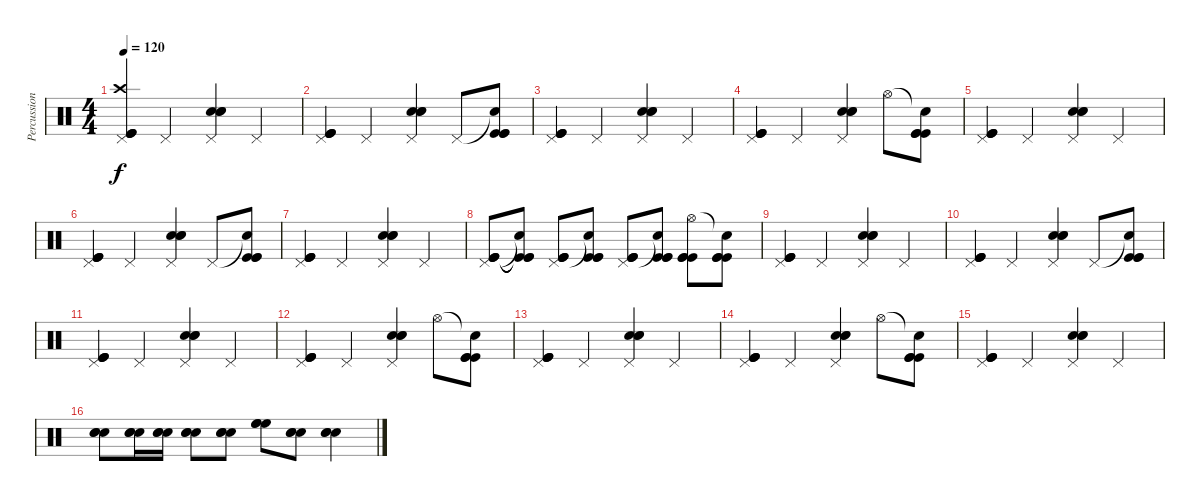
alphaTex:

\track ("Percussions" "Percussion") {instrument percussion}
\staff {score}
\articulation defaults
\ts (4 4)
\tempo 120
\clef neutral
\ks c
("Pedal Hi-Hat (hit)" "Crash high (hit)" "Kick (hit)" "Kick (hit)" "Kick (hit)").4{dy f} "Pedal Hi-Hat (hit)".4 ("Pedal Hi-Hat (hit)" "Snare (hit) 2" "Snare (hit) 2" "Snare (hit) 2").4 "Pedal Hi-Hat (hit)".4 |
("Pedal Hi-Hat (hit)" "Kick (hit)" "Kick (hit)" "Kick (hit)").4 "Pedal Hi-Hat (hit)".4 ("Pedal Hi-Hat (hit)" "Snare (hit) 2" "Snare (hit) 2" "Snare (hit) 2").4 "Pedal Hi-Hat (hit)".8 ("Snare (hit)"{t} "Kick (hit)" "Kick (hit)" "Kick (hit)").8 |
("Pedal Hi-Hat (hit)" "Kick (hit)" "Kick (hit)" "Kick (hit)").4 "Pedal Hi-Hat (hit)".4 ("Pedal Hi-Hat (hit)" "Snare (hit) 2" "Snare (hit) 2" "Snare (hit) 2").4 "Pedal Hi-Hat (hit)".4 |
("Pedal Hi-Hat (hit)" "Kick (hit)" "Kick (hit)" "Kick (hit)").4 "Pedal Hi-Hat (hit)".4 ("Pedal Hi-Hat (hit)" "Snare (hit) 2" "Snare (hit) 2" "Snare (hit) 2").4 "Hi-Hat (open)".8 ("Snare (hit)"{t} "Kick (hit)" "Kick (hit)" "Kick (hit)").8 |
("Pedal Hi-Hat (hit)" "Kick (hit)" "Kick (hit)" "Kick (hit)").4 "Pedal Hi-Hat (hit)".4 ("Pedal Hi-Hat (hit)" "Snare (hit) 2" "Snare (hit) 2" "Snare (hit) 2").4 "Pedal Hi-Hat (hit)".4 |
("Pedal Hi-Hat (hit)" "Kick (hit)" "Kick (hit)" "Kick (hit)").4 "Pedal Hi-Hat (hit)".4 ("Pedal Hi-Hat (hit)" "Snare (hit) 2" "Snare (hit) 2" "Snare (hit) 2").4 "Pedal Hi-Hat (hit)".8 ("Snare (hit)"{t} "Kick (hit)" "Kick (hit)" "Kick (hit)").8 |
("Pedal Hi-Hat (hit)" "Kick (hit)" "Kick (hit)" "Kick (hit)").4 "Pedal Hi-Hat (hit)".4 ("Pedal Hi-Hat (hit)" "Snare (hit) 2" "Snare (hit) 2" "Snare (hit) 2").4 "Pedal Hi-Hat (hit)".4 |
("Pedal Hi-Hat (hit)" "Kick (hit)" "Kick (hit)" "Kick (hit)").8 ("Snare (hit)"{t} "Kick (hit)"{t} "Kick (hit)"{t} "Kick (hit)"{t}).8 ("Pedal Hi-Hat (hit)" "Kick (hit)" "Kick (hit)" "Kick (hit)").8 ("Snare (hit)"{t} "Kick (hit)" "Kick (hit)" "Kick (hit)").8 ("Pedal Hi-Hat (hit)" "Kick (hit)" "Kick (hit)" "Kick (hit)").8 ("Snare (hit)"{t} "Kick (hit)" "Kick (hit)" "Kick (hit)").8 ("Hi-Hat (open)" "Kick (hit)" "Kick (hit)" "Kick (hit)").8 ("Snare (hit)"{t} "Kick (hit)" "Kick (hit)" "Kick (hit)").8 |
("Pedal Hi-Hat (hit)" "Kick (hit)" "Kick (hit)" "Kick (hit)").4 "Pedal Hi-Hat (hit)".4 ("Pedal Hi-Hat (hit)" "Snare (hit) 2" "Snare (hit) 2" "Snare (hit) 2").4 "Pedal Hi-Hat (hit)".4 |
("Pedal Hi-Hat (hit)" "Kick (hit)" "Kick (hit)" "Kick (hit)").4 "Pedal Hi-Hat (hit)".4 ("Pedal Hi-Hat (hit)" "Snare (hit) 2" "Snare (hit) 2" "Snare (hit) 2").4 "Pedal Hi-Hat (hit)".8 ("Snare (hit)"{t} "Kick (hit)" "Kick (hit)" "Kick (hit)").8 |
("Pedal Hi-Hat (hit)" "Kick (hit)" "Kick (hit)" "Kick (hit)").4 "Pedal Hi-Hat (hit)".4 ("Pedal Hi-Hat (hit)" "Snare (hit) 2" "Snare (hit) 2" "Snare (hit) 2").4 "Pedal Hi-Hat (hit)".4 |
("Pedal Hi-Hat (hit)" "Kick (hit)" "Kick (hit)" "Kick (hit)").4 "Pedal Hi-Hat (hit)".4 ("Pedal Hi-Hat (hit)" "Snare (hit) 2" "Snare (hit) 2" "Snare (hit) 2").4 "Hi-Hat (open)".8 ("Snare (hit)"{t} "Kick (hit)" "Kick (hit)" "Kick (hit)").8 |
("Pedal Hi-Hat (hit)" "Kick (hit)" "Kick (hit)" "Kick (hit)").4 "Pedal Hi-Hat (hit)".4 ("Pedal Hi-Hat (hit)" "Snare (hit) 2" "Snare (hit) 2" "Snare (hit) 2").4 "Pedal Hi-Hat (hit)".4 |
("Pedal Hi-Hat (hit)" "Kick (hit)" "Kick (hit)" "Kick (hit)").4 "Pedal Hi-Hat (hit)".4 ("Pedal Hi-Hat (hit)" "Snare (hit) 2" "Snare (hit) 2" "Snare (hit) 2").4 "Hi-Hat (open)".8 ("Snare (hit)"{t} "Kick (hit)" "Kick (hit)" "Kick (hit)").8 |
("Pedal Hi-Hat (hit)" "Kick (hit)" "Kick (hit)" "Kick (hit)").4 "Pedal Hi-Hat (hit)".4 ("Pedal Hi-Hat (hit)" "Snare (hit) 2" "Snare (hit) 2" "Snare (hit) 2").4 "Pedal Hi-Hat (hit)".4 |
("Snare (hit) 2" "Snare (hit) 2" "Snare (hit) 2").8 ("Snare (hit) 2" "Snare (hit) 2" "Snare (hit) 2").16 ("Snare (hit) 2" "Snare (hit) 2" "Snare (hit) 2").16 ("Snare (hit) 2" "Snare (hit) 2" "Snare (hit) 2").8 ("Snare (hit) 2" "Snare (hit) 2" "Snare (hit) 2").8 ("High Floor Tom (hit)" "High Floor Tom (hit)" "High Floor Tom (hit)").8 ("Snare (hit) 2" "Snare (hit) 2" "Snare (hit) 2").8 ("Snare (hit) 2" "Snare (hit) 2" "Snare (hit) 2").4
